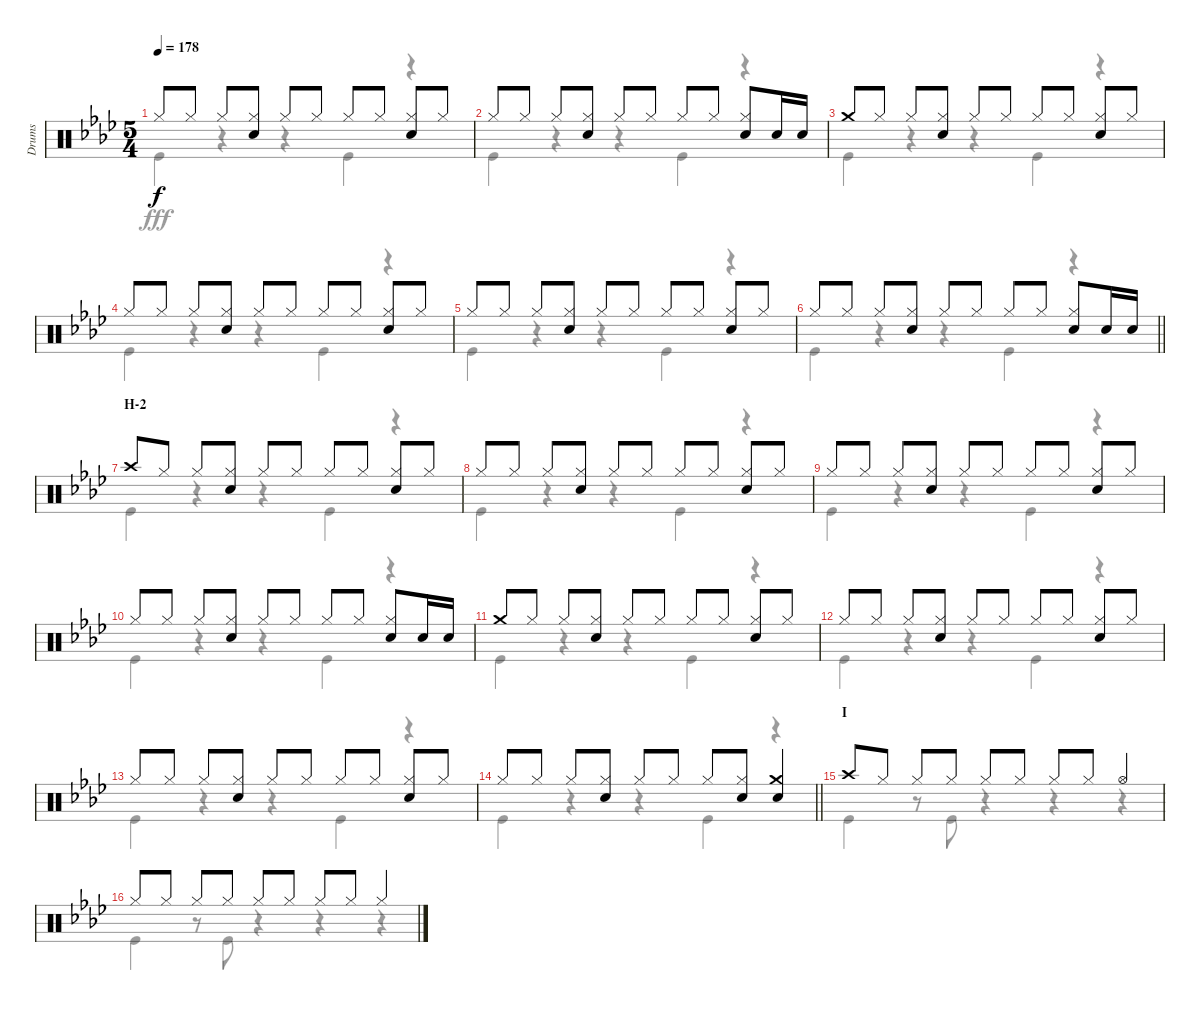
\track ("Drums" "Drums") {instrument percussion}
\staff {score}
\articulation defaults
\voice
\ts (5 4)
\tempo 178
\clef neutral
\ks ab "Hi-Hat (closed)".8{dy f} "Hi-Hat (closed)".8 "Hi-Hat (closed)".8
("Hi-Hat (closed)" "Snare (hit) 2").8 "Hi-Hat (closed)".8 "Hi-Hat (closed)".8 "Hi-Hat (closed)".8 "Hi-Hat (closed)".8 ("Hi-Hat (closed)" "Snare (hit) 2").8 "Hi-Hat (closed)".8 |
"Hi-Hat (closed)".8 "Hi-Hat (closed)".8 "Hi-Hat (closed)".8 ("Hi-Hat (closed)" "Snare (hit) 2").8 "Hi-Hat (closed)".8 "Hi-Hat (closed)".8 "Hi-Hat (closed)".8 "Hi-Hat (closed)".8 ("Hi-Hat (closed)" "Snare (hit) 2").8 "Snare (hit) 2".16 "Snare (hit) 2".16 |
"Crash medium (hit)".8 "Hi-Hat (closed)".8 "Hi-Hat (closed)".8 ("Hi-Hat (closed)" "Snare (hit) 2").8 "Hi-Hat (closed)".8 "Hi-Hat (closed)".8 "Hi-Hat (closed)".8 "Hi-Hat (closed)".8 ("Hi-Hat (closed)" "Snare (hit) 2").8 "Hi-Hat (closed)".8 |
"Hi-Hat (closed)".8 "Hi-Hat (closed)".8 "Hi-Hat (closed)".8 ("Hi-Hat (closed)" "Snare (hit) 2").8 "Hi-Hat (closed)".8 "Hi-Hat (closed)".8 "Hi-Hat (closed)".8 "Hi-Hat (closed)".8 ("Hi-Hat (closed)" "Snare (hit) 2").8 "Hi-Hat (closed)".8 |
"Hi-Hat (closed)".8 "Hi-Hat (closed)".8 "Hi-Hat (closed)".8 ("Hi-Hat (closed)" "Snare (hit) 2").8 "Hi-Hat (closed)".8 "Hi-Hat (closed)".8 "Hi-Hat (closed)".8 "Hi-Hat (closed)".8 ("Hi-Hat (closed)" "Snare (hit) 2").8 "Hi-Hat (closed)".8 |
\barLineRight lightlight "Hi-Hat (closed)".8 "Hi-Hat (closed)".8 "Hi-Hat (closed)".8
("Hi-Hat (closed)" "Snare (hit) 2").8 "Hi-Hat (closed)".8 "Hi-Hat (closed)".8 "Hi-Hat (closed)".8 "Hi-Hat (closed)".8 ("Hi-Hat (closed)" "Snare (hit) 2").8 "Snare (hit) 2".16 "Snare (hit) 2".16 |
\section ("" "H-2")
"Crash high (hit)".8 "Hi-Hat (closed)".8 "Hi-Hat (closed)".8 ("Hi-Hat (closed)" "Snare (hit) 2").8 "Hi-Hat (closed)".8 "Hi-Hat (closed)".8 "Hi-Hat (closed)".8 "Hi-Hat (closed)".8 ("Hi-Hat (closed)" "Snare (hit) 2").8 "Hi-Hat (closed)".8 |
"Hi-Hat (closed)".8 "Hi-Hat (closed)".8 "Hi-Hat (closed)".8 ("Hi-Hat (closed)" "Snare (hit) 2").8 "Hi-Hat (closed)".8 "Hi-Hat (closed)".8 "Hi-Hat (closed)".8 "Hi-Hat (closed)".8 ("Hi-Hat (closed)" "Snare (hit) 2").8 "Hi-Hat (closed)".8 |
"Hi-Hat (closed)".8 "Hi-Hat (closed)".8 "Hi-Hat (closed)".8 ("Hi-Hat (closed)" "Snare (hit) 2").8 "Hi-Hat (closed)".8 "Hi-Hat (closed)".8 "Hi-Hat (closed)".8 "Hi-Hat (closed)".8 ("Hi-Hat (closed)" "Snare (hit) 2").8 "Hi-Hat (closed)".8 |
"Hi-Hat (closed)".8 "Hi-Hat (closed)".8 "Hi-Hat (closed)".8 ("Hi-Hat (closed)" "Snare (hit) 2").8 "Hi-Hat (closed)".8 "Hi-Hat (closed)".8 "Hi-Hat (closed)".8 "Hi-Hat (closed)".8 ("Hi-Hat (closed)" "Snare (hit) 2").8 "Snare (hit) 2".16 "Snare (hit) 2".16 |
"Crash medium (hit)".8 "Hi-Hat (closed)".8 "Hi-Hat (closed)".8 ("Hi-Hat (closed)" "Snare (hit) 2").8 "Hi-Hat (closed)".8 "Hi-Hat (closed)".8 "Hi-Hat (closed)".8 "Hi-Hat (closed)".8 ("Hi-Hat (closed)" "Snare (hit) 2").8 "Hi-Hat (closed)".8 |
"Hi-Hat (closed)".8 "Hi-Hat (closed)".8 "Hi-Hat (closed)".8 ("Hi-Hat (closed)" "Snare (hit) 2").8 "Hi-Hat (closed)".8 "Hi-Hat (closed)".8 "Hi-Hat (closed)".8 "Hi-Hat (closed)".8 ("Hi-Hat (closed)" "Snare (hit) 2").8 "Hi-Hat (closed)".8 |
"Hi-Hat (closed)".8 "Hi-Hat (closed)".8 "Hi-Hat (closed)".8 ("Hi-Hat (closed)" "Snare (hit) 2").8 "Hi-Hat (closed)".8 "Hi-Hat (closed)".8 "Hi-Hat (closed)".8 "Hi-Hat (closed)".8 ("Hi-Hat (closed)" "Snare (hit) 2").8 "Hi-Hat (closed)".8 |
\barLineRight lightlight "Hi-Hat (closed)".8 "Hi-Hat (closed)".8 "Hi-Hat (closed)".8
("Hi-Hat (closed)" "Snare (hit) 2").8 "Hi-Hat (closed)".8 "Hi-Hat (closed)".8 "Hi-Hat (closed)".8 ("Hi-Hat (closed)" "Snare (hit) 2").8 ("Crash medium (hit)" "Snare (hit) 2").4 |
\section ("" "I")
"Crash high (hit)".8 "Hi-Hat (closed)".8 "Hi-Hat (closed)".8 "Hi-Hat (closed)".8 "Hi-Hat (closed)".8 "Hi-Hat (closed)".8 "Hi-Hat (closed)".8 "Hi-Hat (closed)".8 "Hi-Hat (open)".4 |
"Hi-Hat (closed)".8 "Hi-Hat (closed)".8 "Hi-Hat (closed)".8 "Hi-Hat (closed)".8 "Hi-Hat (closed)".8 "Hi-Hat (closed)".8 "Hi-Hat (closed)".8 "Hi-Hat (closed)".8 "Hi-Hat (closed)".4
\voice
\clef neutral
\ottava regular
\simile none
\ks ab "Kick (hit)".4{dy fff}
r.4 r.4 "Kick (hit)".4 r.4 |
"Kick (hit)".4 r.4 r.4 "Kick (hit)".4 r.4 |
"Kick (hit)".4 r.4 r.4 "Kick (hit)".4 r.4 |
"Kick (hit)".4 r.4 r.4 "Kick (hit)".4 r.4 |
"Kick (hit)".4 r.4 r.4 "Kick (hit)".4 r.4 |
\barLineRight lightlight "Kick (hit)".4
r.4 r.4 "Kick (hit)".4 r.4 |
"Kick (hit)".4 r.4 r.4 "Kick (hit)".4 r.4 |
"Kick (hit)".4 r.4 r.4 "Kick (hit)".4 r.4 |
"Kick (hit)".4 r.4 r.4 "Kick (hit)".4 r.4 |
"Kick (hit)".4 r.4 r.4 "Kick (hit)".4 r.4 |
"Kick (hit)".4 r.4 r.4 "Kick (hit)".4 r.4 |
"Kick (hit)".4 r.4 r.4 "Kick (hit)".4 r.4 |
"Kick (hit)".4 r.4 r.4 "Kick (hit)".4 r.4 |
\barLineRight lightlight "Kick (hit)".4
r.4 r.4 "Kick (hit)".4 r.4 |
"Kick (hit)".4 r.8 "Kick (hit)".8 r.4 r.4 r.4 |
"Kick (hit)".4 r.8 "Kick (hit)".8 r.4 r.4 r.4
